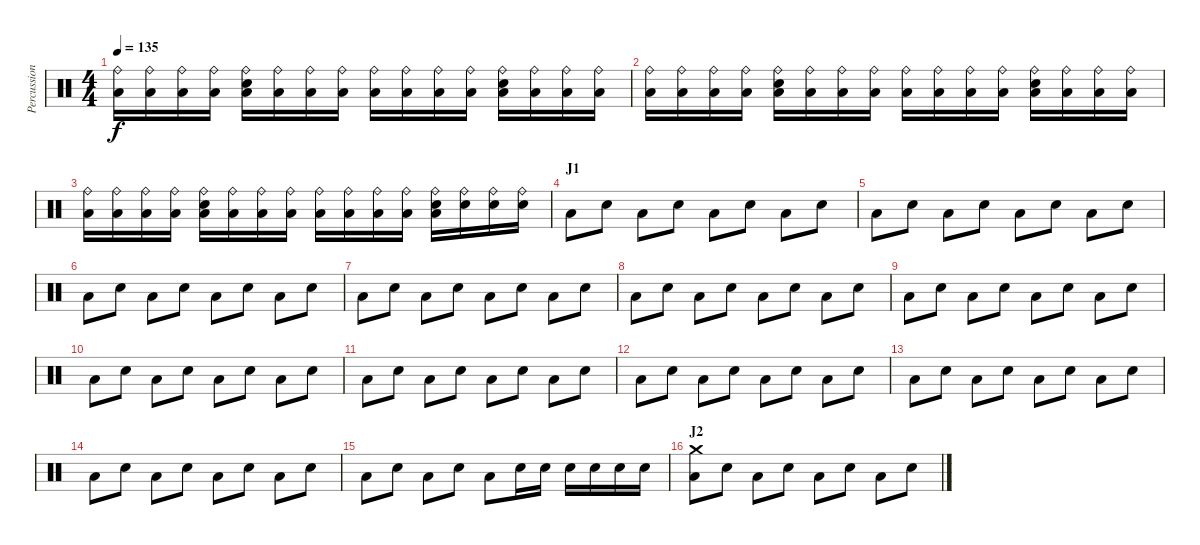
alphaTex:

\track ("Percussion" "Percussion") {instrument percussion}
\staff {score}
\articulation defaults
\ts (4 4)
\tempo 135
\clef neutral
\ks c
("Low Floor Tom (hit)" "Ride (bell)").16{dy f} ("Low Floor Tom (hit)" "Ride (bell)").16 ("Low Floor Tom (hit)" "Ride (bell)").16 ("Low Floor Tom (hit)" "Ride (bell)").16 ("Low Floor Tom (hit)" "Electric Snare (hit)" "Ride (bell)").16 ("Low Floor Tom (hit)" "Ride (bell)").16 ("Low Floor Tom (hit)" "Ride (bell)").16 ("Low Floor Tom (hit)" "Ride (bell)").16 ("Low Floor Tom (hit)" "Ride (bell)").16 ("Low Floor Tom (hit)" "Ride (bell)").16 ("Low Floor Tom (hit)" "Ride (bell)").16 ("Low Floor Tom (hit)" "Ride (bell)").16 ("Low Floor Tom (hit)" "Electric Snare (hit)" "Ride (bell)").16 ("Low Floor Tom (hit)" "Ride (bell)").16 ("Low Floor Tom (hit)" "Ride (bell)").16 ("Low Floor Tom (hit)" "Ride (bell)").16 |
("Low Floor Tom (hit)" "Ride (bell)").16 ("Low Floor Tom (hit)" "Ride (bell)").16 ("Low Floor Tom (hit)" "Ride (bell)").16 ("Low Floor Tom (hit)" "Ride (bell)").16 ("Low Floor Tom (hit)" "Electric Snare (hit)" "Ride (bell)").16 ("Low Floor Tom (hit)" "Ride (bell)").16 ("Low Floor Tom (hit)" "Ride (bell)").16 ("Low Floor Tom (hit)" "Ride (bell)").16 ("Low Floor Tom (hit)" "Ride (bell)").16 ("Low Floor Tom (hit)" "Ride (bell)").16 ("Low Floor Tom (hit)" "Ride (bell)").16 ("Low Floor Tom (hit)" "Ride (bell)").16 ("Low Floor Tom (hit)" "Electric Snare (hit)" "Ride (bell)").16 ("Low Floor Tom (hit)" "Ride (bell)").16 ("Low Floor Tom (hit)" "Ride (bell)").16 ("Low Floor Tom (hit)" "Ride (bell)").16 |
("Low Floor Tom (hit)" "Ride (bell)").16 ("Low Floor Tom (hit)" "Ride (bell)").16 ("Low Floor Tom (hit)" "Ride (bell)").16 ("Low Floor Tom (hit)" "Ride (bell)").16 ("Low Floor Tom (hit)" "Electric Snare (hit)" "Ride (bell)").16 ("Low Floor Tom (hit)" "Ride (bell)").16 ("Low Floor Tom (hit)" "Ride (bell)").16 ("Low Floor Tom (hit)" "Ride (bell)").16 ("Low Floor Tom (hit)" "Ride (bell)").16 ("Low Floor Tom (hit)" "Ride (bell)").16 ("Low Floor Tom (hit)" "Ride (bell)").16 ("Low Floor Tom (hit)" "Ride (bell)").16 ("Low Floor Tom (hit)" "Electric Snare (hit)" "Ride (bell)").16 ("Electric Snare (hit)" "Ride (bell)").16 ("Electric Snare (hit)" "Ride (bell)").16 ("Electric Snare (hit)" "Ride (bell)").16 |
\section ("" "J1")
"Low Floor Tom (hit)".8 "Electric Snare (hit)".8 "Low Floor Tom (hit)".8 "Electric Snare (hit)".8 "Low Floor Tom (hit)".8 "Electric Snare (hit)".8 "Low Floor Tom (hit)".8 "Electric Snare (hit)".8 |
"Low Floor Tom (hit)".8 "Electric Snare (hit)".8 "Low Floor Tom (hit)".8 "Electric Snare (hit)".8 "Low Floor Tom (hit)".8 "Electric Snare (hit)".8 "Low Floor Tom (hit)".8 "Electric Snare (hit)".8 |
"Low Floor Tom (hit)".8 "Electric Snare (hit)".8 "Low Floor Tom (hit)".8 "Electric Snare (hit)".8 "Low Floor Tom (hit)".8 "Electric Snare (hit)".8 "Low Floor Tom (hit)".8 "Electric Snare (hit)".8 |
"Low Floor Tom (hit)".8 "Electric Snare (hit)".8 "Low Floor Tom (hit)".8 "Electric Snare (hit)".8 "Low Floor Tom (hit)".8 "Electric Snare (hit)".8 "Low Floor Tom (hit)".8 "Electric Snare (hit)".8 |
"Low Floor Tom (hit)".8 "Electric Snare (hit)".8 "Low Floor Tom (hit)".8 "Electric Snare (hit)".8 "Low Floor Tom (hit)".8 "Electric Snare (hit)".8 "Low Floor Tom (hit)".8 "Electric Snare (hit)".8 |
"Low Floor Tom (hit)".8 "Electric Snare (hit)".8 "Low Floor Tom (hit)".8 "Electric Snare (hit)".8 "Low Floor Tom (hit)".8 "Electric Snare (hit)".8 "Low Floor Tom (hit)".8 "Electric Snare (hit)".8 |
"Low Floor Tom (hit)".8 "Electric Snare (hit)".8 "Low Floor Tom (hit)".8 "Electric Snare (hit)".8 "Low Floor Tom (hit)".8 "Electric Snare (hit)".8 "Low Floor Tom (hit)".8 "Electric Snare (hit)".8 |
"Low Floor Tom (hit)".8 "Electric Snare (hit)".8 "Low Floor Tom (hit)".8 "Electric Snare (hit)".8 "Low Floor Tom (hit)".8 "Electric Snare (hit)".8 "Low Floor Tom (hit)".8 "Electric Snare (hit)".8 |
"Low Floor Tom (hit)".8 "Electric Snare (hit)".8 "Low Floor Tom (hit)".8 "Electric Snare (hit)".8 "Low Floor Tom (hit)".8 "Electric Snare (hit)".8 "Low Floor Tom (hit)".8 "Electric Snare (hit)".8 |
"Low Floor Tom (hit)".8 "Electric Snare (hit)".8 "Low Floor Tom (hit)".8 "Electric Snare (hit)".8 "Low Floor Tom (hit)".8 "Electric Snare (hit)".8 "Low Floor Tom (hit)".8 "Electric Snare (hit)".8 |
"Low Floor Tom (hit)".8 "Electric Snare (hit)".8 "Low Floor Tom (hit)".8 "Electric Snare (hit)".8 "Low Floor Tom (hit)".8 "Electric Snare (hit)".8 "Low Floor Tom (hit)".8 "Electric Snare (hit)".8 |
"Low Floor Tom (hit)".8 "Electric Snare (hit)".8 "Low Floor Tom (hit)".8 "Electric Snare (hit)".8 "Low Floor Tom (hit)".8 "Electric Snare (hit)".16 "Electric Snare (hit)".16 "Electric Snare (hit)".16 "Electric Snare (hit)".16 "Electric Snare (hit)".16 "Electric Snare (hit)".16 |
\section ("" "J2")
("Low Floor Tom (hit)" "Crash medium (hit)").8 "Electric Snare (hit)".8 "Low Floor Tom (hit)".8 "Electric Snare (hit)".8 "Low Floor Tom (hit)".8 "Electric Snare (hit)".8 "Low Floor Tom (hit)".8 "Electric Snare (hit)".8
